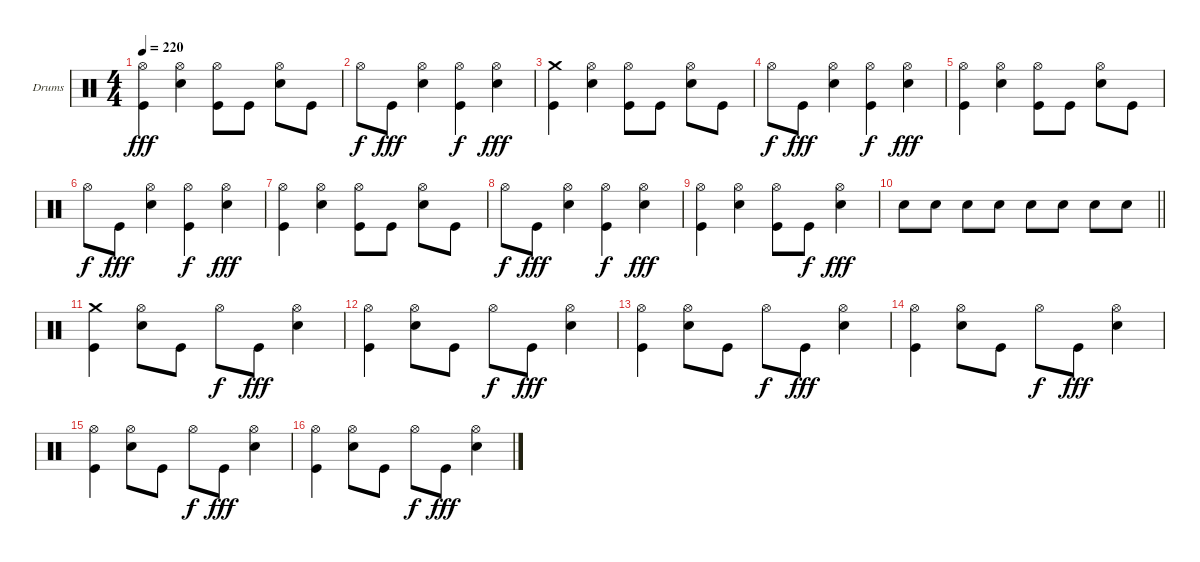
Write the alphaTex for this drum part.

\bracketExtendMode groupsimilarinstruments
\firstSystemTrackNameOrientation horizontal
\otherSystemsTrackNameOrientation horizontal
\track ("Stefan Schwarzmann" "Drums") {instrument percussion}
\staff {score}
\articulation defaults
\ts (4 4)
\tempo 220
\clef neutral
\ks c
("Kick (hit)" "Hi-Hat (open)").4{dy fff} ("Snare (hit) 2" "Hi-Hat (open)").4 ("Kick (hit)" "Hi-Hat (open)").8 "Kick (hit)".8 ("Snare (hit) 2" "Hi-Hat (open)").8 "Kick (hit)".8 |
"Hi-Hat (open)".8{dy f} "Kick (hit)".8{dy fff} ("Snare (hit) 2" "Hi-Hat (open)").4 ("Kick (hit)" "Hi-Hat (open)").4{dy f} ("Snare (hit) 2" "Hi-Hat (open)").4{dy fff} |
("Kick (hit)" "Crash medium (hit)").4 ("Snare (hit) 2" "Hi-Hat (open)").4 ("Kick (hit)" "Hi-Hat (open)").8 "Kick (hit)".8 ("Snare (hit) 2" "Hi-Hat (open)").8 "Kick (hit)".8 |
"Hi-Hat (open)".8{dy f} "Kick (hit)".8{dy fff} ("Snare (hit) 2" "Hi-Hat (open)").4 ("Kick (hit)" "Hi-Hat (open)").4{dy f} ("Snare (hit) 2" "Hi-Hat (open)").4{dy fff} |
("Kick (hit)" "Hi-Hat (open)").4 ("Snare (hit) 2" "Hi-Hat (open)").4 ("Kick (hit)" "Hi-Hat (open)").8 "Kick (hit)".8 ("Snare (hit) 2" "Hi-Hat (open)").8 "Kick (hit)".8 |
"Hi-Hat (open)".8{dy f} "Kick (hit)".8{dy fff} ("Snare (hit) 2" "Hi-Hat (open)").4 ("Kick (hit)" "Hi-Hat (open)").4{dy f} ("Snare (hit) 2" "Hi-Hat (open)").4{dy fff} |
("Kick (hit)" "Hi-Hat (open)").4 ("Snare (hit) 2" "Hi-Hat (open)").4 ("Kick (hit)" "Hi-Hat (open)").8 "Kick (hit)".8 ("Snare (hit) 2" "Hi-Hat (open)").8 "Kick (hit)".8 |
"Hi-Hat (open)".8{dy f} "Kick (hit)".8{dy fff} ("Snare (hit) 2" "Hi-Hat (open)").4 ("Kick (hit)" "Hi-Hat (open)").4{dy f} ("Snare (hit) 2" "Hi-Hat (open)").4{dy fff} |
("Kick (hit)" "Hi-Hat (open)").4 ("Snare (hit) 2" "Hi-Hat (open)").4 ("Kick (hit)" "Hi-Hat (open)").8 "Kick (hit)".8{dy f} ("Snare (hit) 2" "Hi-Hat (open)").4{dy fff} |
\barLineRight lightlight "Snare (hit) 2".8 "Snare (hit) 2".8 "Snare (hit) 2".8 "Snare (hit) 2".8 "Snare (hit) 2".8 "Snare (hit) 2".8 "Snare (hit) 2".8 "Snare (hit) 2".8
|
("Kick (hit)" "Crash medium (hit)").4 ("Snare (hit) 2" "Hi-Hat (open)").8 "Kick (hit)".8 "Hi-Hat (open)".8{dy f} "Kick (hit)".8{dy fff} ("Snare (hit) 2" "Hi-Hat (open)").4 |
("Kick (hit)" "Hi-Hat (open)").4 ("Snare (hit) 2" "Hi-Hat (open)").8 "Kick (hit)".8 "Hi-Hat (open)".8{dy f} "Kick (hit)".8{dy fff} ("Snare (hit) 2" "Hi-Hat (open)").4 |
("Kick (hit)" "Hi-Hat (open)").4 ("Snare (hit) 2" "Hi-Hat (open)").8 "Kick (hit)".8 "Hi-Hat (open)".8{dy f} "Kick (hit)".8{dy fff} ("Snare (hit) 2" "Hi-Hat (open)").4 |
("Kick (hit)" "Hi-Hat (open)").4 ("Snare (hit) 2" "Hi-Hat (open)").8 "Kick (hit)".8 "Hi-Hat (open)".8{dy f} "Kick (hit)".8{dy fff} ("Snare (hit) 2" "Hi-Hat (open)").4 |
("Kick (hit)" "Hi-Hat (open)").4 ("Snare (hit) 2" "Hi-Hat (open)").8 "Kick (hit)".8 "Hi-Hat (open)".8{dy f} "Kick (hit)".8{dy fff} ("Snare (hit) 2" "Hi-Hat (open)").4 |
("Kick (hit)" "Hi-Hat (open)").4 ("Snare (hit) 2" "Hi-Hat (open)").8 "Kick (hit)".8 "Hi-Hat (open)".8{dy f} "Kick (hit)".8{dy fff} ("Snare (hit) 2" "Hi-Hat (open)").4
